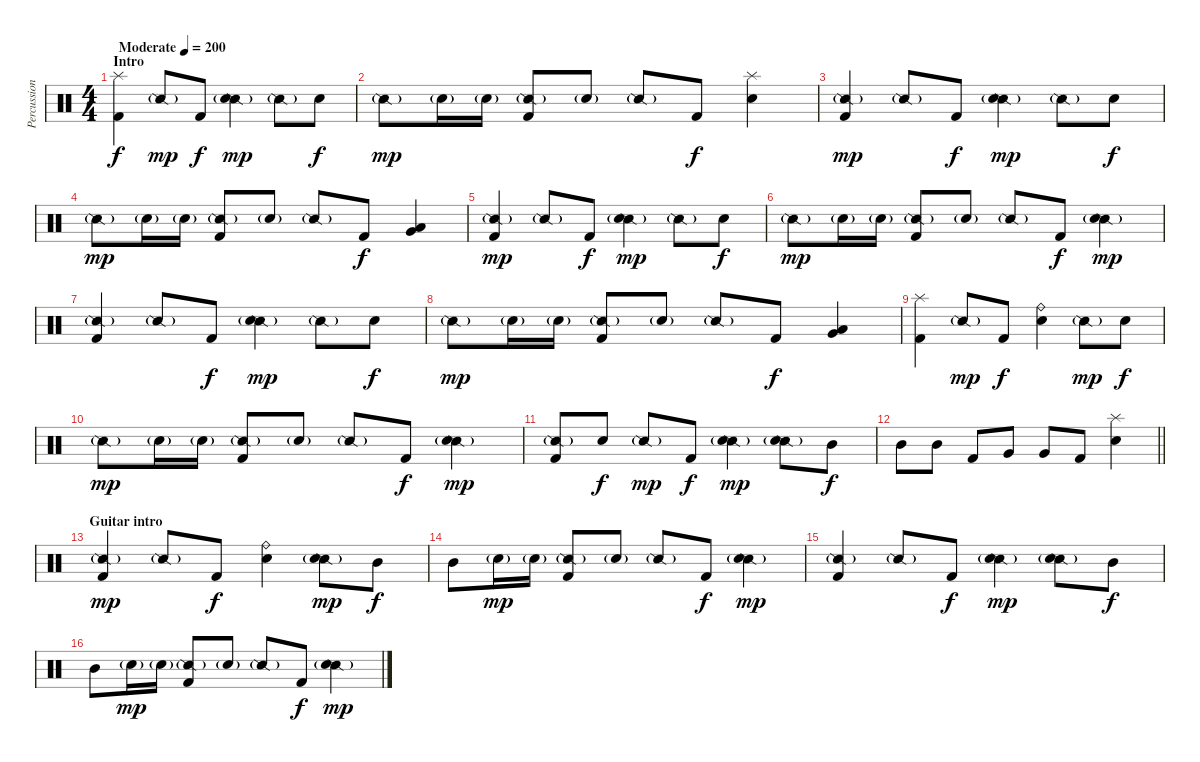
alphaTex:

\track ("Percussion" "Percussion") {instrument percussion}
\staff {score}
\articulation defaults
\ts (4 4)
\section ("" "Intro")
\tempo (200 "Moderate")
\clef neutral
\ks c
("Splash (hit)" "Kick (hit) 2").4{dy f} "Snare (side stick) 2"{g}.8{dy mp} "Kick (hit) 2".8{dy f} ("Snare (side stick) 2"{g} "Electric Snare (hit)").4{dy mp} "Snare (side stick) 2"{g}.8 "Electric Snare (hit)".8{dy f} |
"Snare (side stick) 2"{g}.8{dy mp} "Electric Snare (hit)"{g}.16 "Electric Snare (hit)"{g}.16 ("Snare (side stick) 2"{g} "Kick (hit) 2").8 "Electric Snare (hit)"{g}.8 "Snare (side stick) 2"{g}.8 "Kick (hit) 2".8{dy f} ("Splash (hit)" "Electric Snare (hit)").4 |
("Snare (side stick) 2"{g} "Kick (hit) 2").4{dy mp} "Snare (side stick) 2"{g}.8 "Kick (hit) 2".8{dy f} ("Snare (side stick) 2"{g} "Electric Snare (hit)").4{dy mp} "Snare (side stick) 2"{g}.8 "Electric Snare (hit)".8{dy f} |
"Snare (side stick) 2"{g}.8{dy mp} "Electric Snare (hit)"{g}.16 "Electric Snare (hit)"{g}.16 ("Snare (side stick) 2"{g} "Kick (hit) 2").8 "Electric Snare (hit)"{g}.8 "Snare (side stick) 2"{g}.8 "Kick (hit) 2".8{dy f} ("Low Floor Tom (hit)" "Very Low Tom (hit)").4 |
("Snare (side stick) 2"{g} "Kick (hit) 2").4{dy mp} "Snare (side stick) 2"{g}.8 "Kick (hit) 2".8{dy f} ("Snare (side stick) 2"{g} "Electric Snare (hit)").4{dy mp} "Snare (side stick) 2"{g}.8 "Electric Snare (hit)".8{dy f} |
"Snare (side stick) 2"{g}.8{dy mp} "Electric Snare (hit)"{g}.16 "Electric Snare (hit)"{g}.16 ("Snare (side stick) 2"{g} "Kick (hit) 2").8 "Electric Snare (hit)"{g}.8 "Snare (side stick) 2"{g}.8 "Kick (hit) 2".8{dy f} ("Snare (side stick) 2"{g} "Electric Snare (hit)").4{dy mp} |
("Snare (side stick) 2"{g} "Kick (hit) 2").4 "Snare (side stick) 2"{g}.8 "Kick (hit) 2".8{dy f} ("Snare (side stick) 2"{g} "Electric Snare (hit)").4{dy mp} "Snare (side stick) 2"{g}.8 "Electric Snare (hit)".8{dy f} |
"Snare (side stick) 2"{g}.8{dy mp} "Electric Snare (hit)"{g}.16 "Electric Snare (hit)"{g}.16 ("Snare (side stick) 2"{g} "Kick (hit) 2").8 "Electric Snare (hit)"{g}.8 "Snare (side stick) 2"{g}.8 "Kick (hit) 2".8{dy f} ("Low Floor Tom (hit)" "Very Low Tom (hit)").4 |
("Splash (hit)" "Kick (hit) 2").4 "Snare (side stick) 2"{g}.8{dy mp} "Kick (hit) 2".8{dy f} ("Ride (bell)" "Electric Snare (hit)").4 "Snare (side stick) 2"{g}.8{dy mp} "Electric Snare (hit)".8{dy f} |
"Snare (side stick) 2"{g}.8{dy mp} "Electric Snare (hit)"{g}.16 "Electric Snare (hit)"{g}.16 ("Snare (side stick) 2"{g} "Kick (hit) 2").8 "Electric Snare (hit)"{g}.8 "Snare (side stick) 2"{g}.8 "Kick (hit) 2".8{dy f} ("Snare (side stick) 2"{g} "Electric Snare (hit)").4{dy mp} |
("Snare (side stick) 2"{g} "Kick (hit) 2").8 "Electric Snare (hit)".8{dy f} "Snare (side stick) 2"{g}.8{dy mp} "Kick (hit) 2".8{dy f} ("Snare (side stick) 2"{g} "Electric Snare (hit)").4{dy mp} ("Snare (side stick) 2"{g} "Electric Snare (hit)").8 "Mid Tom (hit)".8{dy f} |
\barLineRight lightlight "Mid Tom (hit)".8 "Mid Tom (hit)".8 "Kick (hit) 2".8 "Very Low Tom (hit)".8 "Very Low Tom (hit)".8 "Kick (hit) 2".8
("Splash (hit)" "Electric Snare (hit)").4 |
\section ("" "Guitar intro")
("Snare (side stick) 2"{g} "Kick (hit) 2").4{dy mp} "Snare (side stick) 2"{g}.8 "Kick (hit) 2".8{dy f} ("Ride (bell)" "Electric Snare (hit)").4 ("Snare (side stick) 2"{g} "Electric Snare (hit)").8{dy mp} "Mid Tom (hit)".8{dy f} |
"Mid Tom (hit)".8 "Electric Snare (hit)"{g}.16{dy mp} "Electric Snare (hit)"{g}.16 ("Snare (side stick) 2"{g} "Kick (hit) 2").8 "Electric Snare (hit)"{g}.8 "Snare (side stick) 2"{g}.8 "Kick (hit) 2".8{dy f} ("Snare (side stick) 2"{g} "Electric Snare (hit)").4{dy mp} |
("Snare (side stick) 2"{g} "Kick (hit) 2").4 "Snare (side stick) 2"{g}.8 "Kick (hit) 2".8{dy f} ("Snare (side stick) 2"{g} "Electric Snare (hit)").4{dy mp} ("Snare (side stick) 2"{g} "Electric Snare (hit)").8 "Mid Tom (hit)".8{dy f} |
"Mid Tom (hit)".8 "Electric Snare (hit)"{g}.16{dy mp} "Electric Snare (hit)"{g}.16 ("Snare (side stick) 2"{g} "Kick (hit) 2").8 "Electric Snare (hit)"{g}.8 "Snare (side stick) 2"{g}.8 "Kick (hit) 2".8{dy f} ("Snare (side stick) 2"{g} "Electric Snare (hit)").4{dy mp}
